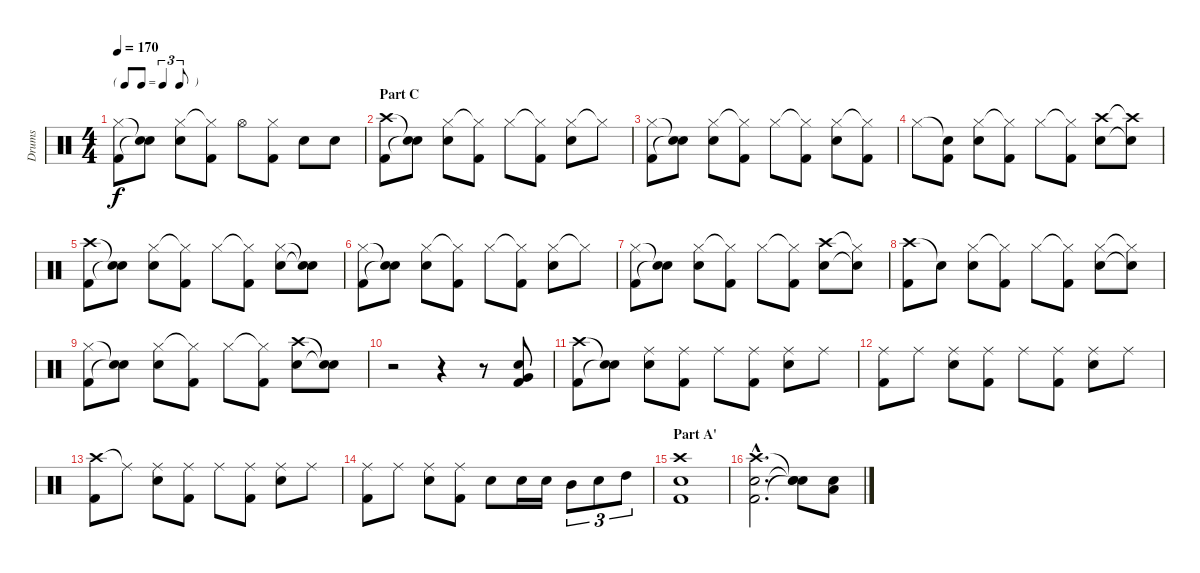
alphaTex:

\track ("Drums" "Drums") {instrument percussion}
\staff {score}
\articulation defaults
\ts (4 4)
\tf triplet8th
\tempo 170
\clef neutral
\ks c
("Hi-Hat (closed)" "Kick (hit) 2").8{dy f} ("Snare (hit)"{t} "Snare (hit)"{t}).8 ("Hi-Hat (closed)" "Electric Snare (hit)").8 ("Hi-Hat (closed)"{t} "Kick (hit) 2").8 "Hi-Hat (open)".8 ("Hi-Hat (closed)" "Kick (hit) 2").8 "Electric Snare (hit)".8 "Electric Snare (hit)".8 |
\section ("" "Part C")
("Crash high (hit)" "Kick (hit) 2").8 ("Snare (hit)"{t} "Snare (hit)"{t}).8 ("Hi-Hat (closed)" "Electric Snare (hit)").8 ("Hi-Hat (closed)"{t} "Kick (hit) 2").8 "Hi-Hat (closed)".8 ("Hi-Hat (closed)"{t} "Kick (hit) 2").8 ("Hi-Hat (closed)" "Electric Snare (hit)").8 "Hi-Hat (closed)"{t}.8 |
("Hi-Hat (closed)" "Kick (hit) 2").8 ("Snare (hit)"{t} "Snare (hit)"{t}).8 ("Hi-Hat (closed)" "Electric Snare (hit)").8 ("Hi-Hat (closed)"{t} "Kick (hit) 2").8 "Hi-Hat (closed)".8 ("Hi-Hat (closed)"{t} "Kick (hit) 2").8 ("Hi-Hat (closed)" "Electric Snare (hit)").8 ("Hi-Hat (closed)"{t} "Kick (hit) 2").8 |
"Hi-Hat (closed)".8 ("Snare (hit)"{t} "Kick (hit) 2").8 ("Hi-Hat (closed)" "Electric Snare (hit)").8 ("Hi-Hat (closed)"{t} "Kick (hit) 2").8 "Hi-Hat (closed)".8 ("Hi-Hat (closed)"{t} "Kick (hit) 2").8 ("Crash high (hit)" "Electric Snare (hit)").8 ("Crash high (hit)"{t} "Snare (hit)"{t}).8 |
("Crash high (hit)" "Kick (hit) 2").8 ("Snare (hit)"{t} "Snare (hit)"{t}).8 ("Hi-Hat (closed)" "Electric Snare (hit)").8 ("Hi-Hat (closed)"{t} "Kick (hit) 2").8 "Hi-Hat (closed)".8 ("Hi-Hat (closed)"{t} "Kick (hit) 2").8 ("Hi-Hat (closed)" "Electric Snare (hit)").8 ("Snare (hit)"{t} "Electric Snare (hit)"{t}).8 |
("Hi-Hat (closed)" "Kick (hit) 2").8 ("Snare (hit)"{t} "Snare (hit)"{t}).8 ("Hi-Hat (closed)" "Electric Snare (hit)").8 ("Hi-Hat (closed)"{t} "Kick (hit) 2").8 "Hi-Hat (closed)".8 ("Hi-Hat (closed)"{t} "Kick (hit) 2").8 ("Hi-Hat (closed)" "Electric Snare (hit)").8 "Hi-Hat (closed)"{t}.8 |
("Hi-Hat (closed)" "Kick (hit) 2").8 ("Snare (hit)"{t} "Snare (hit)"{t}).8 ("Hi-Hat (closed)" "Electric Snare (hit)").8 ("Hi-Hat (closed)"{t} "Kick (hit) 2").8 "Hi-Hat (closed)".8 ("Hi-Hat (closed)"{t} "Kick (hit) 2").8 ("Crash high (hit)" "Electric Snare (hit)").8 ("Hi-Hat (closed)"{t} "Snare (hit)"{t}).8 |
("Crash high (hit)" "Kick (hit) 2").8 "Snare (hit)"{t}.8 ("Hi-Hat (closed)" "Electric Snare (hit)").8 ("Hi-Hat (closed)"{t} "Kick (hit) 2").8 "Hi-Hat (closed)".8 ("Hi-Hat (closed)"{t} "Kick (hit) 2").8 ("Hi-Hat (closed)" "Electric Snare (hit)").8 ("Hi-Hat (closed)"{t} "Snare (hit)"{t}).8 |
("Hi-Hat (closed)" "Kick (hit) 2").8 ("Snare (hit)"{t} "Snare (hit)"{t}).8 ("Hi-Hat (closed)" "Electric Snare (hit)").8 ("Hi-Hat (closed)"{t} "Kick (hit) 2").8 "Hi-Hat (closed)".8 ("Hi-Hat (closed)"{t} "Kick (hit) 2").8 ("Crash high (hit)" "Electric Snare (hit)").8 ("Snare (hit)"{t} "Electric Snare (hit)"{t}).8 |
r.2 r.4 r.8 ("Very Low Tom (hit)" "Electric Snare (hit)" "Kick (hit) 2").8 |
("Crash high (hit)" "Kick (hit) 2").8 ("Snare (hit)"{t} "Snare (hit)"{t}).8 ("Ride (middle)" "Electric Snare (hit)").8 ("Ride (middle)" "Kick (hit) 2").8 "Ride (middle)".8 ("Ride (middle)" "Kick (hit) 2").8 ("Ride (middle)" "Electric Snare (hit)").8 "Ride (middle)".8 |
("Ride (middle)" "Kick (hit) 2").8 "Ride (middle)".8 ("Ride (middle)" "Electric Snare (hit)").8 ("Ride (middle)" "Kick (hit) 2").8 "Ride (middle)".8 ("Ride (middle)" "Kick (hit) 2").8 ("Ride (middle)" "Electric Snare (hit)").8 "Ride (middle)".8 |
("Crash high (hit)" "Kick (hit) 2").8 "Ride (middle)"{t}.8 ("Ride (middle)" "Electric Snare (hit)").8 ("Ride (middle)" "Kick (hit) 2").8 "Ride (middle)".8 ("Ride (middle)" "Kick (hit) 2").8 ("Ride (middle)" "Electric Snare (hit)").8 "Ride (middle)".8 |
("Ride (middle)" "Kick (hit) 2").8 "Ride (middle)".8 ("Ride (middle)" "Electric Snare (hit)").8 ("Ride (middle)" "Kick (hit) 2").8 "Electric Snare (hit)".8 "Electric Snare (hit)".16 "Electric Snare (hit)".16 "Mid Tom (hit)".8{tu (3 2)} "Electric Snare (hit)".8{tu (3 2)} "High Tom (hit)".8{tu (3 2)} |
\section ("" "Part A'")
("Crash high (hit)" "Electric Snare (hit)" "Kick (hit) 2").1 |
("Crash high (hit)"{hac} "Electric Snare (hit)"{hac} "Kick (hit) 2"{hac}).2{d} ("Snare (hit)"{t} "Snare (hit)"{t} "Snare (hit)"{t}).8 ("Low Tom (hit)" "Electric Snare (hit)").8
